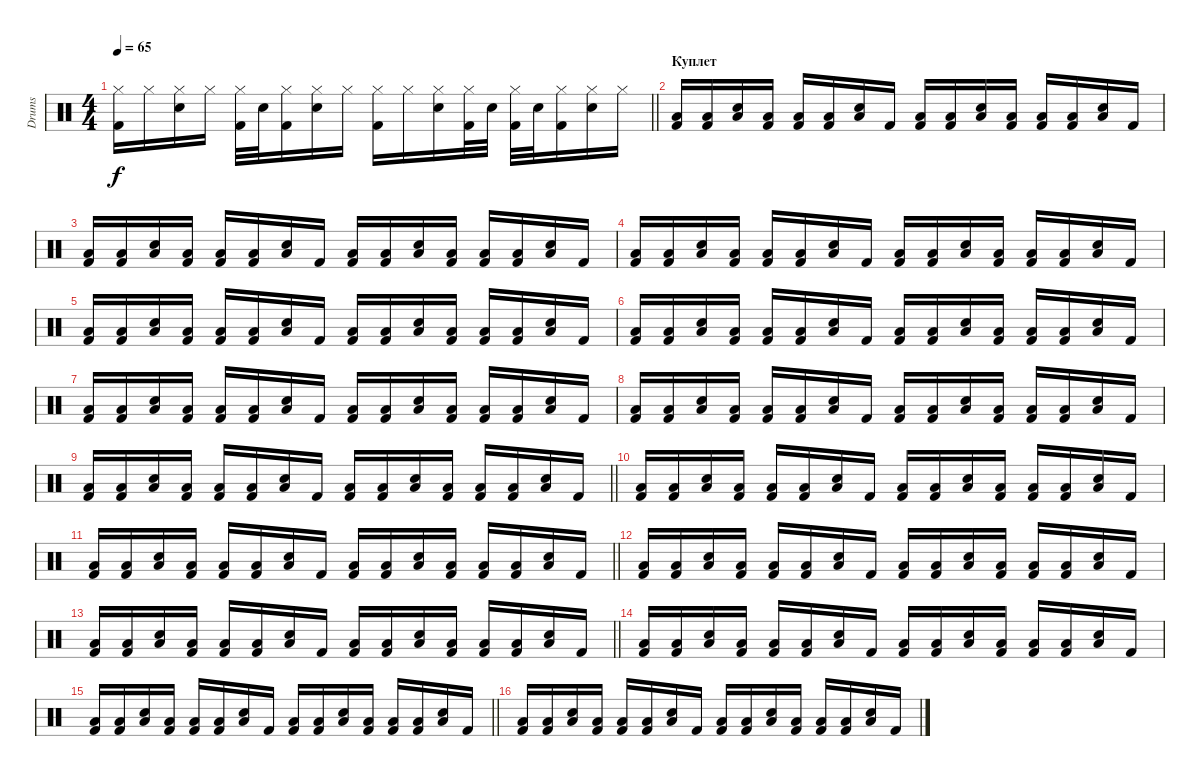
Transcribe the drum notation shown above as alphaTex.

\track ("Drums" "Drums") {instrument percussion}
\staff {score}
\articulation defaults
\ts (4 4)
\tempo 65
\clef neutral
\barLineRight lightlight
\ks c
("Hi-Hat (closed)" "Kick (hit) 2").16{dy f} "Hi-Hat (closed)".16 ("Hi-Hat (closed)" "Snare (hit) 2").16 "Hi-Hat (closed)".16 ("Hi-Hat (closed)" "Kick (hit) 2").32 "Snare (hit) 2".32 ("Hi-Hat (closed)" "Kick (hit) 2").16 ("Hi-Hat (closed)" "Snare (hit) 2").16 "Hi-Hat (closed)".16 ("Hi-Hat (closed)" "Kick (hit) 2").16 "Hi-Hat (closed)".16 ("Hi-Hat (closed)" "Snare (hit) 2").16 ("Hi-Hat (closed)" "Kick (hit) 2").32 "Snare (hit) 2".32 ("Hi-Hat (closed)" "Kick (hit) 2").32 "Snare (hit) 2".32 ("Hi-Hat (closed)" "Kick (hit) 2").16 ("Hi-Hat (closed)" "Snare (hit) 2").16 "Hi-Hat (closed)".16 |
\section ("" "Куплет")
("Low Tom (hit)" "Kick (hit) 2").16 ("Low Tom (hit)" "Kick (hit) 2").16 ("Low Tom (hit)" "Snare (hit) 2").16 ("Low Tom (hit)" "Kick (hit) 2").16 ("Low Tom (hit)" "Kick (hit) 2").16 ("Low Tom (hit)" "Kick (hit) 2").16 ("Low Tom (hit)" "Snare (hit) 2").16 "Kick (hit) 2".16 ("Low Tom (hit)" "Kick (hit) 2").16 ("Low Tom (hit)" "Kick (hit) 2").16 ("Low Tom (hit)" "Snare (hit) 2").16 ("Low Tom (hit)" "Kick (hit) 2").16 ("Low Tom (hit)" "Kick (hit) 2").16 ("Low Tom (hit)" "Kick (hit) 2").16 ("Low Tom (hit)" "Snare (hit) 2").16 "Kick (hit) 2".16 |
("Low Tom (hit)" "Kick (hit) 2").16 ("Low Tom (hit)" "Kick (hit) 2").16 ("Low Tom (hit)" "Snare (hit) 2").16 ("Low Tom (hit)" "Kick (hit) 2").16 ("Low Tom (hit)" "Kick (hit) 2").16 ("Low Tom (hit)" "Kick (hit) 2").16 ("Low Tom (hit)" "Snare (hit) 2").16 "Kick (hit) 2".16 ("Low Tom (hit)" "Kick (hit) 2").16 ("Low Tom (hit)" "Kick (hit) 2").16 ("Low Tom (hit)" "Snare (hit) 2").16 ("Low Tom (hit)" "Kick (hit) 2").16 ("Low Tom (hit)" "Kick (hit) 2").16 ("Low Tom (hit)" "Kick (hit) 2").16 ("Low Tom (hit)" "Snare (hit) 2").16 "Kick (hit) 2".16 |
("Low Tom (hit)" "Kick (hit) 2").16 ("Low Tom (hit)" "Kick (hit) 2").16 ("Low Tom (hit)" "Snare (hit) 2").16 ("Low Tom (hit)" "Kick (hit) 2").16 ("Low Tom (hit)" "Kick (hit) 2").16 ("Low Tom (hit)" "Kick (hit) 2").16 ("Low Tom (hit)" "Snare (hit) 2").16 "Kick (hit) 2".16 ("Low Tom (hit)" "Kick (hit) 2").16 ("Low Tom (hit)" "Kick (hit) 2").16 ("Low Tom (hit)" "Snare (hit) 2").16 ("Low Tom (hit)" "Kick (hit) 2").16 ("Low Tom (hit)" "Kick (hit) 2").16 ("Low Tom (hit)" "Kick (hit) 2").16 ("Low Tom (hit)" "Snare (hit) 2").16 "Kick (hit) 2".16 |
("Low Tom (hit)" "Kick (hit) 2").16 ("Low Tom (hit)" "Kick (hit) 2").16 ("Low Tom (hit)" "Snare (hit) 2").16 ("Low Tom (hit)" "Kick (hit) 2").16 ("Low Tom (hit)" "Kick (hit) 2").16 ("Low Tom (hit)" "Kick (hit) 2").16 ("Low Tom (hit)" "Snare (hit) 2").16 "Kick (hit) 2".16 ("Low Tom (hit)" "Kick (hit) 2").16 ("Low Tom (hit)" "Kick (hit) 2").16 ("Low Tom (hit)" "Snare (hit) 2").16 ("Low Tom (hit)" "Kick (hit) 2").16 ("Low Tom (hit)" "Kick (hit) 2").16 ("Low Tom (hit)" "Kick (hit) 2").16 ("Low Tom (hit)" "Snare (hit) 2").16 "Kick (hit) 2".16 |
("Low Tom (hit)" "Kick (hit) 2").16 ("Low Tom (hit)" "Kick (hit) 2").16 ("Low Tom (hit)" "Snare (hit) 2").16 ("Low Tom (hit)" "Kick (hit) 2").16 ("Low Tom (hit)" "Kick (hit) 2").16 ("Low Tom (hit)" "Kick (hit) 2").16 ("Low Tom (hit)" "Snare (hit) 2").16 "Kick (hit) 2".16 ("Low Tom (hit)" "Kick (hit) 2").16 ("Low Tom (hit)" "Kick (hit) 2").16 ("Low Tom (hit)" "Snare (hit) 2").16 ("Low Tom (hit)" "Kick (hit) 2").16 ("Low Tom (hit)" "Kick (hit) 2").16 ("Low Tom (hit)" "Kick (hit) 2").16 ("Low Tom (hit)" "Snare (hit) 2").16 "Kick (hit) 2".16 |
("Low Tom (hit)" "Kick (hit) 2").16 ("Low Tom (hit)" "Kick (hit) 2").16 ("Low Tom (hit)" "Snare (hit) 2").16 ("Low Tom (hit)" "Kick (hit) 2").16 ("Low Tom (hit)" "Kick (hit) 2").16 ("Low Tom (hit)" "Kick (hit) 2").16 ("Low Tom (hit)" "Snare (hit) 2").16 "Kick (hit) 2".16 ("Low Tom (hit)" "Kick (hit) 2").16 ("Low Tom (hit)" "Kick (hit) 2").16 ("Low Tom (hit)" "Snare (hit) 2").16 ("Low Tom (hit)" "Kick (hit) 2").16 ("Low Tom (hit)" "Kick (hit) 2").16 ("Low Tom (hit)" "Kick (hit) 2").16 ("Low Tom (hit)" "Snare (hit) 2").16 "Kick (hit) 2".16 |
("Low Tom (hit)" "Kick (hit) 2").16 ("Low Tom (hit)" "Kick (hit) 2").16 ("Low Tom (hit)" "Snare (hit) 2").16 ("Low Tom (hit)" "Kick (hit) 2").16 ("Low Tom (hit)" "Kick (hit) 2").16 ("Low Tom (hit)" "Kick (hit) 2").16 ("Low Tom (hit)" "Snare (hit) 2").16 "Kick (hit) 2".16 ("Low Tom (hit)" "Kick (hit) 2").16 ("Low Tom (hit)" "Kick (hit) 2").16 ("Low Tom (hit)" "Snare (hit) 2").16 ("Low Tom (hit)" "Kick (hit) 2").16 ("Low Tom (hit)" "Kick (hit) 2").16 ("Low Tom (hit)" "Kick (hit) 2").16 ("Low Tom (hit)" "Snare (hit) 2").16 "Kick (hit) 2".16 |
\barLineRight lightlight
("Low Tom (hit)" "Kick (hit) 2").16 ("Low Tom (hit)" "Kick (hit) 2").16 ("Low Tom (hit)" "Snare (hit) 2").16 ("Low Tom (hit)" "Kick (hit) 2").16 ("Low Tom (hit)" "Kick (hit) 2").16 ("Low Tom (hit)" "Kick (hit) 2").16 ("Low Tom (hit)" "Snare (hit) 2").16 "Kick (hit) 2".16 ("Low Tom (hit)" "Kick (hit) 2").16 ("Low Tom (hit)" "Kick (hit) 2").16 ("Low Tom (hit)" "Snare (hit) 2").16 ("Low Tom (hit)" "Kick (hit) 2").16 ("Low Tom (hit)" "Kick (hit) 2").16 ("Low Tom (hit)" "Kick (hit) 2").16 ("Low Tom (hit)" "Snare (hit) 2").16 "Kick (hit) 2".16 |
("Low Tom (hit)" "Kick (hit) 2").16 ("Low Tom (hit)" "Kick (hit) 2").16 ("Low Tom (hit)" "Snare (hit) 2").16 ("Low Tom (hit)" "Kick (hit) 2").16 ("Low Tom (hit)" "Kick (hit) 2").16 ("Low Tom (hit)" "Kick (hit) 2").16 ("Low Tom (hit)" "Snare (hit) 2").16 "Kick (hit) 2".16 ("Low Tom (hit)" "Kick (hit) 2").16 ("Low Tom (hit)" "Kick (hit) 2").16 ("Low Tom (hit)" "Snare (hit) 2").16 ("Low Tom (hit)" "Kick (hit) 2").16 ("Low Tom (hit)" "Kick (hit) 2").16 ("Low Tom (hit)" "Kick (hit) 2").16 ("Low Tom (hit)" "Snare (hit) 2").16 "Kick (hit) 2".16 |
\barLineRight lightlight
("Low Tom (hit)" "Kick (hit) 2").16 ("Low Tom (hit)" "Kick (hit) 2").16 ("Low Tom (hit)" "Snare (hit) 2").16 ("Low Tom (hit)" "Kick (hit) 2").16 ("Low Tom (hit)" "Kick (hit) 2").16 ("Low Tom (hit)" "Kick (hit) 2").16 ("Low Tom (hit)" "Snare (hit) 2").16 "Kick (hit) 2".16 ("Low Tom (hit)" "Kick (hit) 2").16 ("Low Tom (hit)" "Kick (hit) 2").16 ("Low Tom (hit)" "Snare (hit) 2").16 ("Low Tom (hit)" "Kick (hit) 2").16 ("Low Tom (hit)" "Kick (hit) 2").16 ("Low Tom (hit)" "Kick (hit) 2").16 ("Low Tom (hit)" "Snare (hit) 2").16 "Kick (hit) 2".16 |
("Low Tom (hit)" "Kick (hit) 2").16 ("Low Tom (hit)" "Kick (hit) 2").16 ("Low Tom (hit)" "Snare (hit) 2").16 ("Low Tom (hit)" "Kick (hit) 2").16 ("Low Tom (hit)" "Kick (hit) 2").16 ("Low Tom (hit)" "Kick (hit) 2").16 ("Low Tom (hit)" "Snare (hit) 2").16 "Kick (hit) 2".16 ("Low Tom (hit)" "Kick (hit) 2").16 ("Low Tom (hit)" "Kick (hit) 2").16 ("Low Tom (hit)" "Snare (hit) 2").16 ("Low Tom (hit)" "Kick (hit) 2").16 ("Low Tom (hit)" "Kick (hit) 2").16 ("Low Tom (hit)" "Kick (hit) 2").16 ("Low Tom (hit)" "Snare (hit) 2").16 "Kick (hit) 2".16 |
\barLineRight lightlight
("Low Tom (hit)" "Kick (hit) 2").16 ("Low Tom (hit)" "Kick (hit) 2").16 ("Low Tom (hit)" "Snare (hit) 2").16 ("Low Tom (hit)" "Kick (hit) 2").16 ("Low Tom (hit)" "Kick (hit) 2").16 ("Low Tom (hit)" "Kick (hit) 2").16 ("Low Tom (hit)" "Snare (hit) 2").16 "Kick (hit) 2".16 ("Low Tom (hit)" "Kick (hit) 2").16 ("Low Tom (hit)" "Kick (hit) 2").16 ("Low Tom (hit)" "Snare (hit) 2").16 ("Low Tom (hit)" "Kick (hit) 2").16 ("Low Tom (hit)" "Kick (hit) 2").16 ("Low Tom (hit)" "Kick (hit) 2").16 ("Low Tom (hit)" "Snare (hit) 2").16 "Kick (hit) 2".16 |
("Low Tom (hit)" "Kick (hit) 2").16 ("Low Tom (hit)" "Kick (hit) 2").16 ("Low Tom (hit)" "Snare (hit) 2").16 ("Low Tom (hit)" "Kick (hit) 2").16 ("Low Tom (hit)" "Kick (hit) 2").16 ("Low Tom (hit)" "Kick (hit) 2").16 ("Low Tom (hit)" "Snare (hit) 2").16 "Kick (hit) 2".16 ("Low Tom (hit)" "Kick (hit) 2").16 ("Low Tom (hit)" "Kick (hit) 2").16 ("Low Tom (hit)" "Snare (hit) 2").16 ("Low Tom (hit)" "Kick (hit) 2").16 ("Low Tom (hit)" "Kick (hit) 2").16 ("Low Tom (hit)" "Kick (hit) 2").16 ("Low Tom (hit)" "Snare (hit) 2").16 "Kick (hit) 2".16 |
\barLineRight lightlight
("Low Tom (hit)" "Kick (hit) 2").16 ("Low Tom (hit)" "Kick (hit) 2").16 ("Low Tom (hit)" "Snare (hit) 2").16 ("Low Tom (hit)" "Kick (hit) 2").16 ("Low Tom (hit)" "Kick (hit) 2").16 ("Low Tom (hit)" "Kick (hit) 2").16 ("Low Tom (hit)" "Snare (hit) 2").16 "Kick (hit) 2".16 ("Low Tom (hit)" "Kick (hit) 2").16 ("Low Tom (hit)" "Kick (hit) 2").16 ("Low Tom (hit)" "Snare (hit) 2").16 ("Low Tom (hit)" "Kick (hit) 2").16 ("Low Tom (hit)" "Kick (hit) 2").16 ("Low Tom (hit)" "Kick (hit) 2").16 ("Low Tom (hit)" "Snare (hit) 2").16 "Kick (hit) 2".16 |
("Low Tom (hit)" "Kick (hit) 2").16 ("Low Tom (hit)" "Kick (hit) 2").16 ("Low Tom (hit)" "Snare (hit) 2").16 ("Low Tom (hit)" "Kick (hit) 2").16 ("Low Tom (hit)" "Kick (hit) 2").16 ("Low Tom (hit)" "Kick (hit) 2").16 ("Low Tom (hit)" "Snare (hit) 2").16 "Kick (hit) 2".16 ("Low Tom (hit)" "Kick (hit) 2").16 ("Low Tom (hit)" "Kick (hit) 2").16 ("Low Tom (hit)" "Snare (hit) 2").16 ("Low Tom (hit)" "Kick (hit) 2").16 ("Low Tom (hit)" "Kick (hit) 2").16 ("Low Tom (hit)" "Kick (hit) 2").16 ("Low Tom (hit)" "Snare (hit) 2").16 "Kick (hit) 2".16
